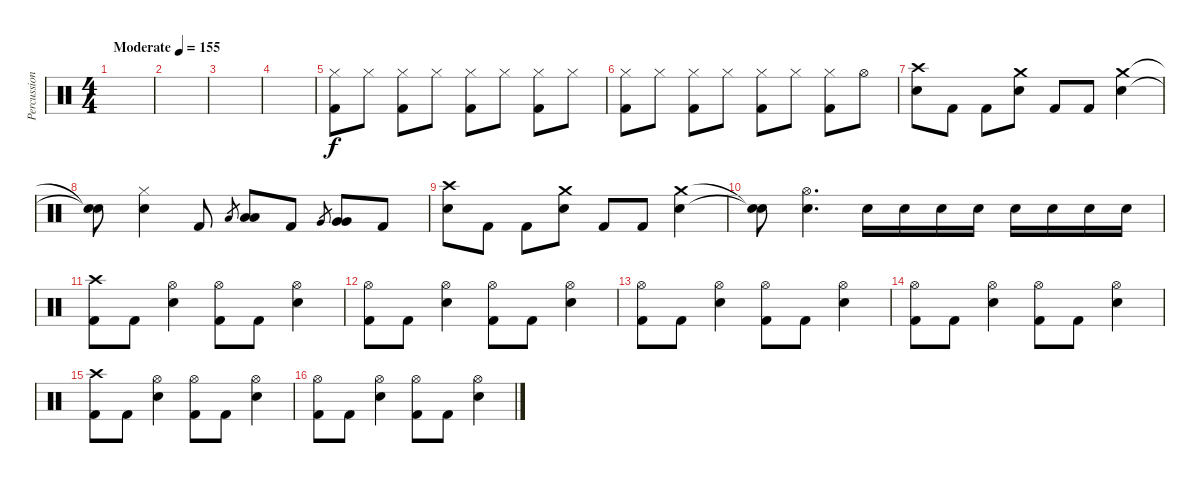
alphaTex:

\track ("Percussion" "Percussion") {instrument percussion}
\staff {score}
\articulation defaults
\ts (4 4)
\tempo (155 "Moderate")
\clef neutral
\ks c
|
|
|
|
("Hi-Hat (closed)" "Kick (hit) 2").8 "Hi-Hat (closed)".8 ("Hi-Hat (closed)" "Kick (hit) 2").8 "Hi-Hat (closed)".8 ("Hi-Hat (closed)" "Kick (hit) 2").8 "Hi-Hat (closed)".8 ("Hi-Hat (closed)" "Kick (hit) 2").8 "Hi-Hat (closed)".8 |
("Hi-Hat (closed)" "Kick (hit) 2").8 "Hi-Hat (closed)".8 ("Hi-Hat (closed)" "Kick (hit) 2").8 "Hi-Hat (closed)".8 ("Hi-Hat (closed)" "Kick (hit) 2").8 "Hi-Hat (closed)".8 ("Hi-Hat (closed)" "Kick (hit) 2").8 "Hi-Hat (open)".8 |
("Crash high (hit)" "Electric Snare (hit)").8 "Kick (hit) 2".8 "Kick (hit) 2".8 ("Crash medium (hit)" "Electric Snare (hit)").8 "Kick (hit) 2".8 "Kick (hit) 2".8 ("Crash medium (hit)" "Electric Snare (hit)").4 |
("Snare (hit)"{t} "Snare (hit)"{t}).8 ("Hi-Hat (closed)" "Electric Snare (hit)").4 "Kick (hit) 2".8 "Low Tom (hit)".8{gr} ("Low Tom (hit)" "Low Tom (hit)").8 "Kick (hit) 2".8 "Very Low Tom (hit)".8{gr} ("Very Low Tom (hit)" "Very Low Tom (hit)").8 "Kick (hit) 2".8 |
("Crash high (hit)" "Electric Snare (hit)").8 "Kick (hit) 2".8 "Kick (hit) 2".8 ("Crash medium (hit)" "Electric Snare (hit)").8 "Kick (hit) 2".8 "Kick (hit) 2".8 ("Crash medium (hit)" "Electric Snare (hit)").4 |
("Snare (hit)"{t} "Snare (hit)"{t}).8 ("Hi-Hat (open)" "Electric Snare (hit)").4{d} "Electric Snare (hit)".16 "Electric Snare (hit)".16 "Electric Snare (hit)".16 "Electric Snare (hit)".16 "Electric Snare (hit)".16 "Electric Snare (hit)".16 "Electric Snare (hit)".16 "Electric Snare (hit)".16 |
("Crash high (hit)" "Kick (hit) 2").8 "Kick (hit) 2".8 ("Hi-Hat (open)" "Electric Snare (hit)").4 ("Hi-Hat (open)" "Kick (hit) 2").8 "Kick (hit) 2".8 ("Hi-Hat (open)" "Electric Snare (hit)").4 |
("Hi-Hat (open)" "Kick (hit) 2").8 "Kick (hit) 2".8 ("Hi-Hat (open)" "Electric Snare (hit)").4 ("Hi-Hat (open)" "Kick (hit) 2").8 "Kick (hit) 2".8 ("Hi-Hat (open)" "Electric Snare (hit)").4 |
("Hi-Hat (open)" "Kick (hit) 2").8 "Kick (hit) 2".8 ("Hi-Hat (open)" "Electric Snare (hit)").4 ("Hi-Hat (open)" "Kick (hit) 2").8 "Kick (hit) 2".8 ("Hi-Hat (open)" "Electric Snare (hit)").4 |
("Hi-Hat (open)" "Kick (hit) 2").8 "Kick (hit) 2".8 ("Hi-Hat (open)" "Electric Snare (hit)").4 ("Hi-Hat (open)" "Kick (hit) 2").8 "Kick (hit) 2".8 ("Hi-Hat (open)" "Electric Snare (hit)").4 |
("Crash high (hit)" "Kick (hit) 2").8 "Kick (hit) 2".8 ("Hi-Hat (open)" "Electric Snare (hit)").4 ("Hi-Hat (open)" "Kick (hit) 2").8 "Kick (hit) 2".8 ("Hi-Hat (open)" "Electric Snare (hit)").4 |
("Hi-Hat (open)" "Kick (hit) 2").8 "Kick (hit) 2".8 ("Hi-Hat (open)" "Electric Snare (hit)").4 ("Hi-Hat (open)" "Kick (hit) 2").8 "Kick (hit) 2".8 ("Hi-Hat (open)" "Electric Snare (hit)").4
